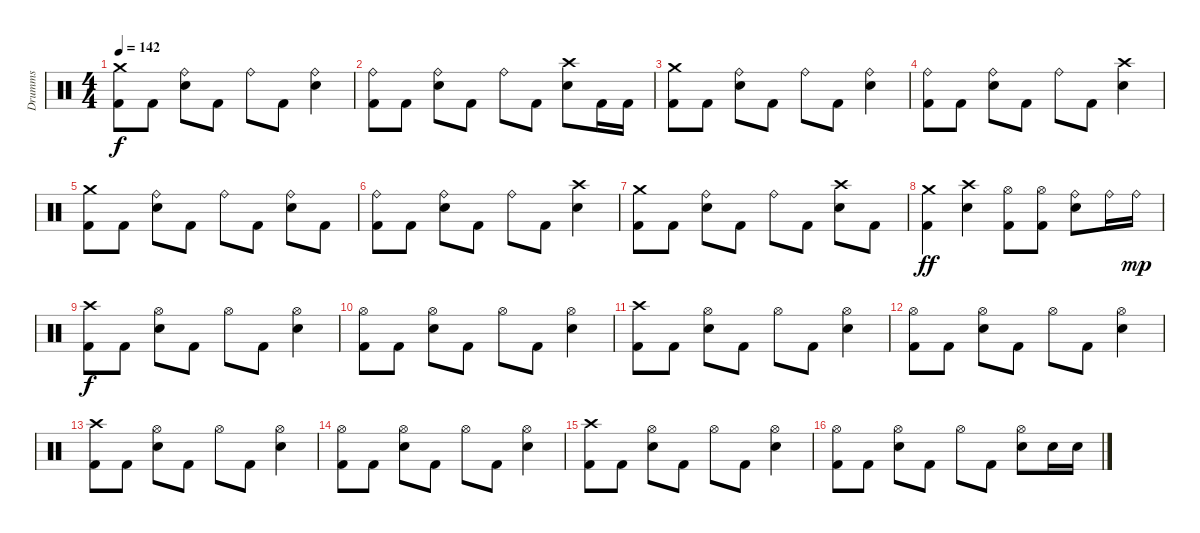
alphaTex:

\track ("Drumms" "Drumms") {instrument percussion}
\staff {score}
\articulation defaults
\ts (4 4)
\tempo 142
\clef neutral
\ks c
("Kick (hit) 2" "Crash medium (hit)").8{dy f} "Kick (hit) 2".8 ("Electric Snare (hit)" "Ride (bell)").8 "Kick (hit) 2".8 "Ride (bell)".8 "Kick (hit) 2".8 ("Electric Snare (hit)" "Ride (bell)").4 |
("Kick (hit) 2" "Ride (bell)").8 "Kick (hit) 2".8 ("Electric Snare (hit)" "Ride (bell)").8 "Kick (hit) 2".8 "Ride (bell)".8 "Kick (hit) 2".8 ("Electric Snare (hit)" "Crash high (hit)").8 "Kick (hit) 2".16 "Kick (hit) 2".16 |
("Kick (hit) 2" "Crash medium (hit)").8 "Kick (hit) 2".8 ("Electric Snare (hit)" "Ride (bell)").8 "Kick (hit) 2".8 "Ride (bell)".8 "Kick (hit) 2".8 ("Electric Snare (hit)" "Ride (bell)").4 |
("Kick (hit) 2" "Ride (bell)").8 "Kick (hit) 2".8 ("Electric Snare (hit)" "Ride (bell)").8 "Kick (hit) 2".8 "Ride (bell)".8 "Kick (hit) 2".8 ("Electric Snare (hit)" "Crash high (hit)").4 |
("Kick (hit) 2" "Crash medium (hit)").8 "Kick (hit) 2".8 ("Electric Snare (hit)" "Ride (bell)").8 "Kick (hit) 2".8 "Ride (bell)".8 "Kick (hit) 2".8 ("Electric Snare (hit)" "Ride (bell)").8 "Kick (hit) 2".8 |
("Kick (hit) 2" "Ride (bell)").8 "Kick (hit) 2".8 ("Electric Snare (hit)" "Ride (bell)").8 "Kick (hit) 2".8 "Ride (bell)".8 "Kick (hit) 2".8 ("Electric Snare (hit)" "Crash high (hit)").4 |
("Kick (hit) 2" "Crash medium (hit)").8 "Kick (hit) 2".8 ("Electric Snare (hit)" "Ride (bell)").8 "Kick (hit) 2".8 "Ride (bell)".8 "Kick (hit) 2".8 ("Electric Snare (hit)" "Crash high (hit)").8 "Kick (hit) 2".8 |
("Kick (hit) 2" "Crash medium (hit)").4{dy ff} ("Electric Snare (hit)" "Crash high (hit)").4 ("Kick (hit) 2" "Hi-Hat (open)").8 ("Kick (hit) 2" "Hi-Hat (open)").8 ("Ride (bell)" "Electric Snare (hit)").8 "Ride (bell)".16 "Ride (bell)".16{dy mp} |
\section ("" "")
("Kick (hit) 2" "Crash high (hit)").8{dy f} "Kick (hit) 2".8 ("Electric Snare (hit)" "Hi-Hat (open)").8 "Kick (hit) 2".8 "Hi-Hat (open)".8 "Kick (hit) 2".8 ("Electric Snare (hit)" "Hi-Hat (open)").4 |
("Kick (hit) 2" "Hi-Hat (open)").8 "Kick (hit) 2".8 ("Electric Snare (hit)" "Hi-Hat (open)").8 "Kick (hit) 2".8 "Hi-Hat (open)".8 "Kick (hit) 2".8 ("Electric Snare (hit)" "Hi-Hat (open)").4 |
("Kick (hit) 2" "Crash high (hit)").8 "Kick (hit) 2".8 ("Electric Snare (hit)" "Hi-Hat (open)").8 "Kick (hit) 2".8 "Hi-Hat (open)".8 "Kick (hit) 2".8 ("Electric Snare (hit)" "Hi-Hat (open)").4 |
("Kick (hit) 2" "Hi-Hat (open)").8 "Kick (hit) 2".8 ("Electric Snare (hit)" "Hi-Hat (open)").8 "Kick (hit) 2".8 "Hi-Hat (open)".8 "Kick (hit) 2".8 ("Electric Snare (hit)" "Hi-Hat (open)").4 |
("Kick (hit) 2" "Crash high (hit)").8 "Kick (hit) 2".8 ("Electric Snare (hit)" "Hi-Hat (open)").8 "Kick (hit) 2".8 "Hi-Hat (open)".8 "Kick (hit) 2".8 ("Electric Snare (hit)" "Hi-Hat (open)").4 |
("Kick (hit) 2" "Hi-Hat (open)").8 "Kick (hit) 2".8 ("Electric Snare (hit)" "Hi-Hat (open)").8 "Kick (hit) 2".8 "Hi-Hat (open)".8 "Kick (hit) 2".8 ("Electric Snare (hit)" "Hi-Hat (open)").4 |
("Kick (hit) 2" "Crash high (hit)").8 "Kick (hit) 2".8 ("Electric Snare (hit)" "Hi-Hat (open)").8 "Kick (hit) 2".8 "Hi-Hat (open)".8 "Kick (hit) 2".8 ("Electric Snare (hit)" "Hi-Hat (open)").4 |
("Kick (hit) 2" "Hi-Hat (open)").8 "Kick (hit) 2".8 ("Electric Snare (hit)" "Hi-Hat (open)").8 "Kick (hit) 2".8 "Hi-Hat (open)".8 "Kick (hit) 2".8 ("Electric Snare (hit)" "Hi-Hat (open)").8 "Electric Snare (hit)".16 "Electric Snare (hit)".16
